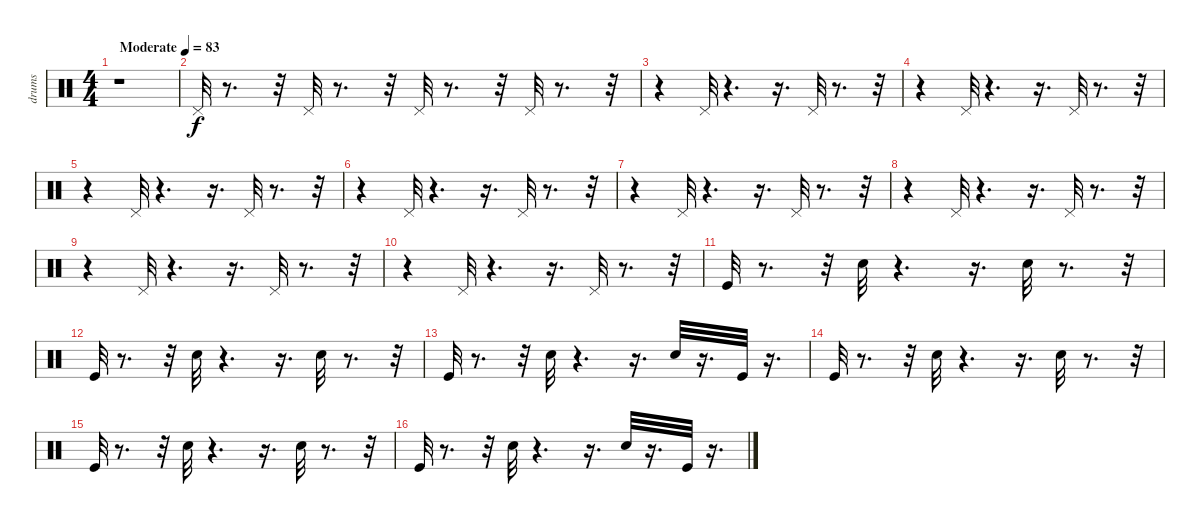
\track ("drums" "drums") {instrument percussion}
\staff {score}
\articulation defaults
\ts (4 4)
\tempo (83 "Moderate")
\clef neutral
\ks c
r.1{dy f} |
"Pedal Hi-Hat (hit)".32 r.8{d} r.32 "Pedal Hi-Hat (hit)".32 r.8{d} r.32 "Pedal Hi-Hat (hit)".32 r.8{d} r.32 "Pedal Hi-Hat (hit)".32 r.8{d} r.32 |
r.4 "Pedal Hi-Hat (hit)".32 r.4{d} r.16{d} "Pedal Hi-Hat (hit)".32 r.8{d} r.32 |
r.4 "Pedal Hi-Hat (hit)".32 r.4{d} r.16{d} "Pedal Hi-Hat (hit)".32 r.8{d} r.32 |
r.4 "Pedal Hi-Hat (hit)".32 r.4{d} r.16{d} "Pedal Hi-Hat (hit)".32 r.8{d} r.32 |
r.4 "Pedal Hi-Hat (hit)".32 r.4{d} r.16{d} "Pedal Hi-Hat (hit)".32 r.8{d} r.32 |
r.4 "Pedal Hi-Hat (hit)".32 r.4{d} r.16{d} "Pedal Hi-Hat (hit)".32 r.8{d} r.32 |
r.4 "Pedal Hi-Hat (hit)".32 r.4{d} r.16{d} "Pedal Hi-Hat (hit)".32 r.8{d} r.32 |
r.4 "Pedal Hi-Hat (hit)".32 r.4{d} r.16{d} "Pedal Hi-Hat (hit)".32 r.8{d} r.32 |
r.4 "Pedal Hi-Hat (hit)".32 r.4{d} r.16{d} "Pedal Hi-Hat (hit)".32 r.8{d} r.32 |
"Kick (hit)".32 r.8{d} r.32 "Electric Snare (hit)".32 r.4{d} r.16{d} "Electric Snare (hit)".32 r.8{d} r.32 |
"Kick (hit)".32 r.8{d} r.32 "Electric Snare (hit)".32 r.4{d} r.16{d} "Electric Snare (hit)".32 r.8{d} r.32 |
"Kick (hit)".32 r.8{d} r.32 "Electric Snare (hit)".32 r.4{d} r.16{d} "Electric Snare (hit)".32 r.16{d} "Kick (hit)".32 r.16{d} |
"Kick (hit)".32 r.8{d} r.32 "Electric Snare (hit)".32 r.4{d} r.16{d} "Electric Snare (hit)".32 r.8{d} r.32 |
"Kick (hit)".32 r.8{d} r.32 "Electric Snare (hit)".32 r.4{d} r.16{d} "Electric Snare (hit)".32 r.8{d} r.32 |
"Kick (hit)".32 r.8{d} r.32 "Electric Snare (hit)".32 r.4{d} r.16{d} "Electric Snare (hit)".32 r.16{d} "Kick (hit)".32 r.16{d}
